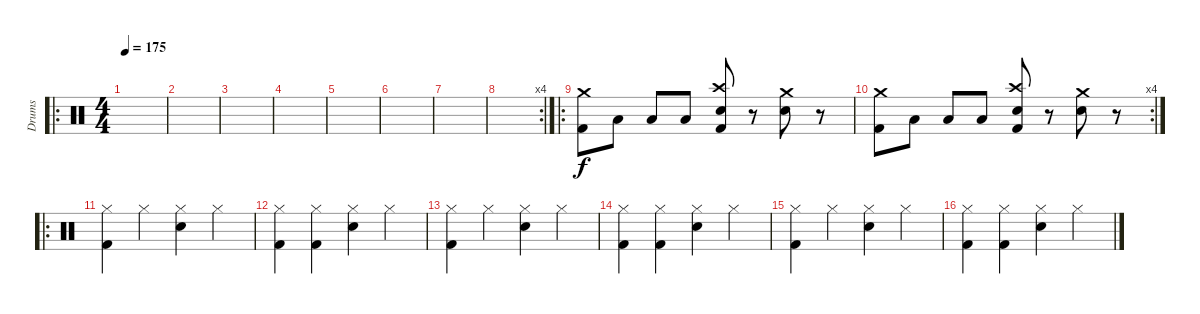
\track ("Drums" "Drums") {instrument percussion}
\staff {score}
\articulation defaults
\ro
\ts (4 4)
\tempo 175
\clef neutral
\ks c
|
|
|
|
|
|
|
\rc 4
|
\ro
("Crash medium (hit)" "Kick (hit) 2").8 "Low Tom (hit)".8 "Low Tom (hit)".8 "Low Tom (hit)".8 ("Crash high (hit)" "Snare (hit) 2" "Kick (hit) 2").8 r.8 ("Crash medium (hit)" "Snare (hit) 2").8 r.8 |
\rc 4
("Crash medium (hit)" "Kick (hit) 2").8 "Low Tom (hit)".8 "Low Tom (hit)".8 "Low Tom (hit)".8 ("Crash high (hit)" "Snare (hit) 2" "Kick (hit) 2").8 r.8 ("Crash medium (hit)" "Snare (hit) 2").8 r.8 |
\ro
("Hi-Hat (closed)" "Kick (hit) 2").4 "Hi-Hat (closed)".4 ("Hi-Hat (closed)" "Snare (hit) 2").4 "Hi-Hat (closed)".4 |
("Hi-Hat (closed)" "Kick (hit) 2").4 ("Hi-Hat (closed)" "Kick (hit) 2").4 ("Hi-Hat (closed)" "Snare (hit) 2").4 "Hi-Hat (closed)".4 |
("Hi-Hat (closed)" "Kick (hit) 2").4 "Hi-Hat (closed)".4 ("Hi-Hat (closed)" "Snare (hit) 2").4 "Hi-Hat (closed)".4 |
("Hi-Hat (closed)" "Kick (hit) 2").4 ("Hi-Hat (closed)" "Kick (hit) 2").4 ("Hi-Hat (closed)" "Snare (hit) 2").4 "Hi-Hat (closed)".4 |
("Hi-Hat (closed)" "Kick (hit) 2").4 "Hi-Hat (closed)".4 ("Hi-Hat (closed)" "Snare (hit) 2").4 "Hi-Hat (closed)".4 |
("Hi-Hat (closed)" "Kick (hit) 2").4 ("Hi-Hat (closed)" "Kick (hit) 2").4 ("Hi-Hat (closed)" "Snare (hit) 2").4 "Hi-Hat (closed)".4
